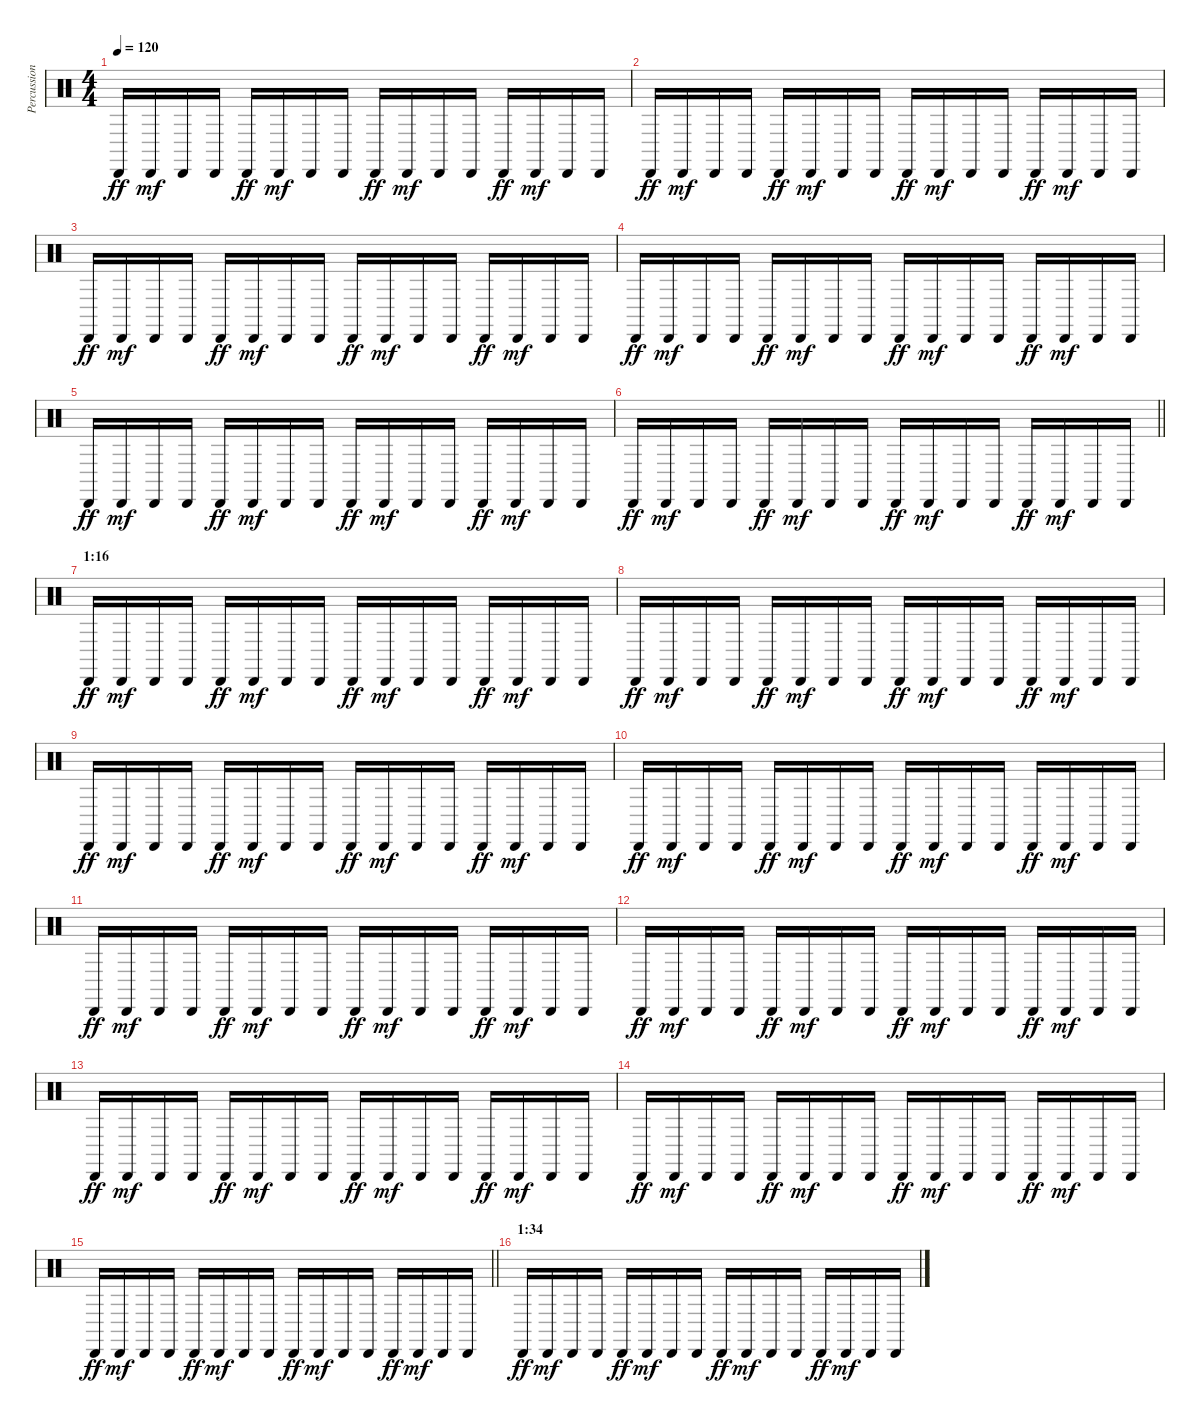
\track ("Percussion" "Percussion") {instrument percussion}
\staff {score}
\articulation defaults
\ts (4 4)
\tempo 120
\clef neutral
\ks c "Cabasa (hit)".16{dy ff} "Cabasa (hit)".16{dy mf} "Cabasa (hit)".16 "Cabasa (hit)".16 "Cabasa (hit)".16{dy ff} "Cabasa (hit)".16{dy mf} "Cabasa (hit)".16 "Cabasa (hit)".16 "Cabasa (hit)".16{dy ff} "Cabasa (hit)".16{dy mf} "Cabasa (hit)".16 "Cabasa (hit)".16 "Cabasa (hit)".16{dy ff} "Cabasa (hit)".16{dy mf} "Cabasa (hit)".16 "Cabasa (hit)".16
|
"Cabasa (hit)".16{dy ff} "Cabasa (hit)".16{dy mf} "Cabasa (hit)".16 "Cabasa (hit)".16 "Cabasa (hit)".16{dy ff} "Cabasa (hit)".16{dy mf} "Cabasa (hit)".16 "Cabasa (hit)".16 "Cabasa (hit)".16{dy ff} "Cabasa (hit)".16{dy mf} "Cabasa (hit)".16 "Cabasa (hit)".16 "Cabasa (hit)".16{dy ff} "Cabasa (hit)".16{dy mf} "Cabasa (hit)".16 "Cabasa (hit)".16 |
"Cabasa (hit)".16{dy ff} "Cabasa (hit)".16{dy mf} "Cabasa (hit)".16 "Cabasa (hit)".16 "Cabasa (hit)".16{dy ff} "Cabasa (hit)".16{dy mf} "Cabasa (hit)".16 "Cabasa (hit)".16 "Cabasa (hit)".16{dy ff} "Cabasa (hit)".16{dy mf} "Cabasa (hit)".16 "Cabasa (hit)".16 "Cabasa (hit)".16{dy ff} "Cabasa (hit)".16{dy mf} "Cabasa (hit)".16 "Cabasa (hit)".16 |
"Cabasa (hit)".16{dy ff} "Cabasa (hit)".16{dy mf} "Cabasa (hit)".16 "Cabasa (hit)".16 "Cabasa (hit)".16{dy ff} "Cabasa (hit)".16{dy mf} "Cabasa (hit)".16 "Cabasa (hit)".16 "Cabasa (hit)".16{dy ff} "Cabasa (hit)".16{dy mf} "Cabasa (hit)".16 "Cabasa (hit)".16 "Cabasa (hit)".16{dy ff} "Cabasa (hit)".16{dy mf} "Cabasa (hit)".16 "Cabasa (hit)".16 |
"Cabasa (hit)".16{dy ff} "Cabasa (hit)".16{dy mf} "Cabasa (hit)".16 "Cabasa (hit)".16 "Cabasa (hit)".16{dy ff} "Cabasa (hit)".16{dy mf} "Cabasa (hit)".16 "Cabasa (hit)".16 "Cabasa (hit)".16{dy ff} "Cabasa (hit)".16{dy mf} "Cabasa (hit)".16 "Cabasa (hit)".16 "Cabasa (hit)".16{dy ff} "Cabasa (hit)".16{dy mf} "Cabasa (hit)".16 "Cabasa (hit)".16 |
\barLineRight lightlight "Cabasa (hit)".16{dy ff} "Cabasa (hit)".16{dy mf} "Cabasa (hit)".16 "Cabasa (hit)".16 "Cabasa (hit)".16{dy ff} "Cabasa (hit)".16{dy mf} "Cabasa (hit)".16 "Cabasa (hit)".16 "Cabasa (hit)".16{dy ff} "Cabasa (hit)".16{dy mf} "Cabasa (hit)".16 "Cabasa (hit)".16 "Cabasa (hit)".16{dy ff} "Cabasa (hit)".16{dy mf} "Cabasa (hit)".16 "Cabasa (hit)".16
|
\section ("" "1:16")
"Cabasa (hit)".16{dy ff} "Cabasa (hit)".16{dy mf} "Cabasa (hit)".16 "Cabasa (hit)".16 "Cabasa (hit)".16{dy ff} "Cabasa (hit)".16{dy mf} "Cabasa (hit)".16 "Cabasa (hit)".16 "Cabasa (hit)".16{dy ff} "Cabasa (hit)".16{dy mf} "Cabasa (hit)".16 "Cabasa (hit)".16 "Cabasa (hit)".16{dy ff} "Cabasa (hit)".16{dy mf} "Cabasa (hit)".16 "Cabasa (hit)".16 |
"Cabasa (hit)".16{dy ff} "Cabasa (hit)".16{dy mf} "Cabasa (hit)".16 "Cabasa (hit)".16 "Cabasa (hit)".16{dy ff} "Cabasa (hit)".16{dy mf} "Cabasa (hit)".16 "Cabasa (hit)".16 "Cabasa (hit)".16{dy ff} "Cabasa (hit)".16{dy mf} "Cabasa (hit)".16 "Cabasa (hit)".16 "Cabasa (hit)".16{dy ff} "Cabasa (hit)".16{dy mf} "Cabasa (hit)".16 "Cabasa (hit)".16 |
"Cabasa (hit)".16{dy ff} "Cabasa (hit)".16{dy mf} "Cabasa (hit)".16 "Cabasa (hit)".16 "Cabasa (hit)".16{dy ff} "Cabasa (hit)".16{dy mf} "Cabasa (hit)".16 "Cabasa (hit)".16 "Cabasa (hit)".16{dy ff} "Cabasa (hit)".16{dy mf} "Cabasa (hit)".16 "Cabasa (hit)".16 "Cabasa (hit)".16{dy ff} "Cabasa (hit)".16{dy mf} "Cabasa (hit)".16 "Cabasa (hit)".16 |
"Cabasa (hit)".16{dy ff} "Cabasa (hit)".16{dy mf} "Cabasa (hit)".16 "Cabasa (hit)".16 "Cabasa (hit)".16{dy ff} "Cabasa (hit)".16{dy mf} "Cabasa (hit)".16 "Cabasa (hit)".16 "Cabasa (hit)".16{dy ff} "Cabasa (hit)".16{dy mf} "Cabasa (hit)".16 "Cabasa (hit)".16 "Cabasa (hit)".16{dy ff} "Cabasa (hit)".16{dy mf} "Cabasa (hit)".16 "Cabasa (hit)".16 |
"Cabasa (hit)".16{dy ff} "Cabasa (hit)".16{dy mf} "Cabasa (hit)".16 "Cabasa (hit)".16 "Cabasa (hit)".16{dy ff} "Cabasa (hit)".16{dy mf} "Cabasa (hit)".16 "Cabasa (hit)".16 "Cabasa (hit)".16{dy ff} "Cabasa (hit)".16{dy mf} "Cabasa (hit)".16 "Cabasa (hit)".16 "Cabasa (hit)".16{dy ff} "Cabasa (hit)".16{dy mf} "Cabasa (hit)".16 "Cabasa (hit)".16 |
"Cabasa (hit)".16{dy ff} "Cabasa (hit)".16{dy mf} "Cabasa (hit)".16 "Cabasa (hit)".16 "Cabasa (hit)".16{dy ff} "Cabasa (hit)".16{dy mf} "Cabasa (hit)".16 "Cabasa (hit)".16 "Cabasa (hit)".16{dy ff} "Cabasa (hit)".16{dy mf} "Cabasa (hit)".16 "Cabasa (hit)".16 "Cabasa (hit)".16{dy ff} "Cabasa (hit)".16{dy mf} "Cabasa (hit)".16 "Cabasa (hit)".16 |
"Cabasa (hit)".16{dy ff} "Cabasa (hit)".16{dy mf} "Cabasa (hit)".16 "Cabasa (hit)".16 "Cabasa (hit)".16{dy ff} "Cabasa (hit)".16{dy mf} "Cabasa (hit)".16 "Cabasa (hit)".16 "Cabasa (hit)".16{dy ff} "Cabasa (hit)".16{dy mf} "Cabasa (hit)".16 "Cabasa (hit)".16 "Cabasa (hit)".16{dy ff} "Cabasa (hit)".16{dy mf} "Cabasa (hit)".16 "Cabasa (hit)".16 |
"Cabasa (hit)".16{dy ff} "Cabasa (hit)".16{dy mf} "Cabasa (hit)".16 "Cabasa (hit)".16 "Cabasa (hit)".16{dy ff} "Cabasa (hit)".16{dy mf} "Cabasa (hit)".16 "Cabasa (hit)".16 "Cabasa (hit)".16{dy ff} "Cabasa (hit)".16{dy mf} "Cabasa (hit)".16 "Cabasa (hit)".16 "Cabasa (hit)".16{dy ff} "Cabasa (hit)".16{dy mf} "Cabasa (hit)".16 "Cabasa (hit)".16 |
\barLineRight lightlight "Cabasa (hit)".16{dy ff} "Cabasa (hit)".16{dy mf} "Cabasa (hit)".16 "Cabasa (hit)".16 "Cabasa (hit)".16{dy ff} "Cabasa (hit)".16{dy mf} "Cabasa (hit)".16 "Cabasa (hit)".16 "Cabasa (hit)".16{dy ff} "Cabasa (hit)".16{dy mf} "Cabasa (hit)".16 "Cabasa (hit)".16 "Cabasa (hit)".16{dy ff} "Cabasa (hit)".16{dy mf} "Cabasa (hit)".16 "Cabasa (hit)".16
|
\section ("" "1:34")
"Cabasa (hit)".16{dy ff} "Cabasa (hit)".16{dy mf} "Cabasa (hit)".16 "Cabasa (hit)".16 "Cabasa (hit)".16{dy ff} "Cabasa (hit)".16{dy mf} "Cabasa (hit)".16 "Cabasa (hit)".16 "Cabasa (hit)".16{dy ff} "Cabasa (hit)".16{dy mf} "Cabasa (hit)".16 "Cabasa (hit)".16 "Cabasa (hit)".16{dy ff} "Cabasa (hit)".16{dy mf} "Cabasa (hit)".16 "Cabasa (hit)".16
